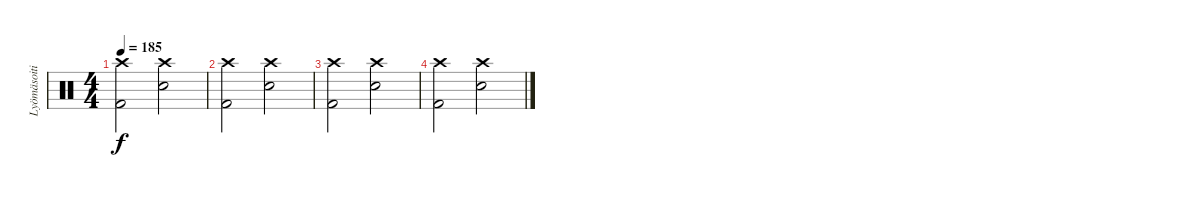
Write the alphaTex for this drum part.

\track ("Lyömäsoitin" "Lyömäsoiti") {instrument percussion}
\staff {score}
\articulation defaults
\ts (4 4)
\tempo 185
\clef neutral
\ks c
("Crash high (hit)" "Kick (hit) 2").2{dy f} ("Crash high (hit)" "Electric Snare (hit)").2 |
("Crash high (hit)" "Kick (hit) 2").2 ("Crash high (hit)" "Electric Snare (hit)").2 |
("Crash high (hit)" "Kick (hit) 2").2 ("Crash high (hit)" "Electric Snare (hit)").2 |
("Crash high (hit)" "Kick (hit) 2").2 ("Crash high (hit)" "Electric Snare (hit)").2
